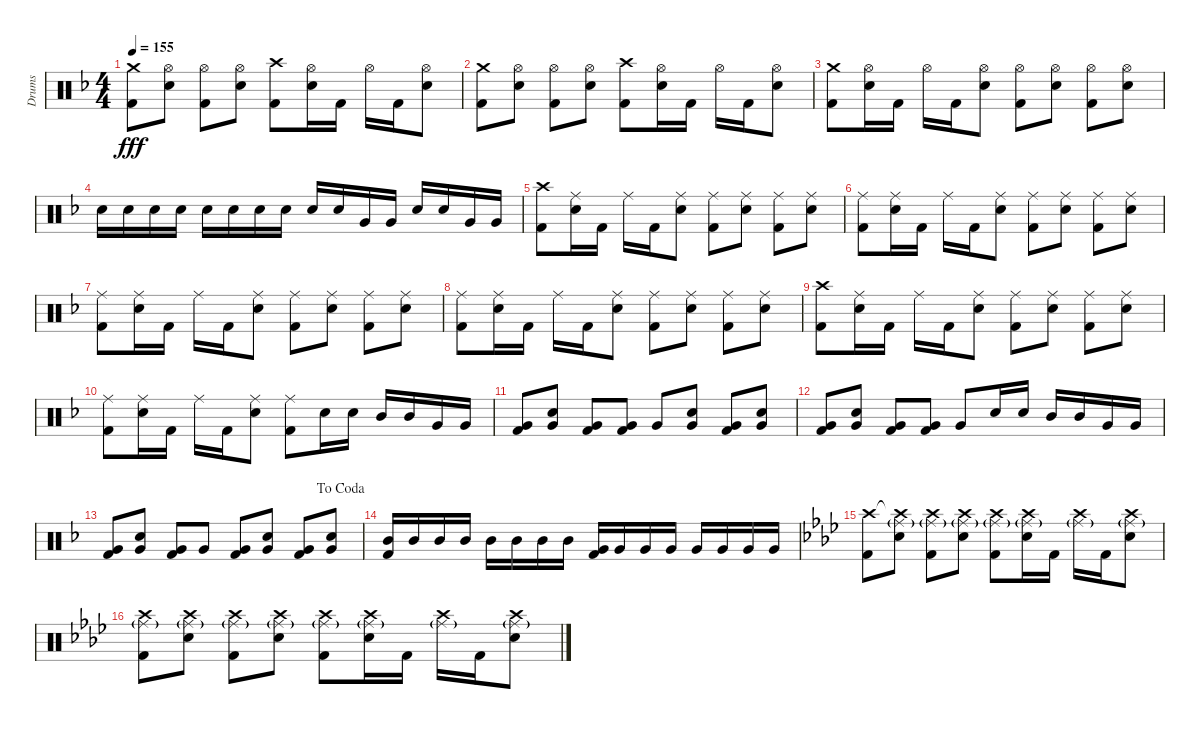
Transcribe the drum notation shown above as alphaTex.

\track ("Drums" "Drums") {instrument percussion}
\staff {score}
\articulation defaults
\ts (4 4)
\tempo 155
\clef neutral
\ks f
("Crash medium (hit)" "Kick (hit) 2").8{dy fff} ("Hi-Hat (open)" "Electric Snare (hit)").8 ("Hi-Hat (open)" "Kick (hit) 2").8 ("Hi-Hat (open)" "Electric Snare (hit)").8 ("Crash high (hit)" "Kick (hit) 2").8 ("Hi-Hat (open)" "Electric Snare (hit)").16 "Kick (hit) 2".16 "Hi-Hat (open)".16 "Kick (hit) 2".16 ("Hi-Hat (open)" "Electric Snare (hit)").8 |
("Crash medium (hit)" "Kick (hit) 2").8 ("Hi-Hat (open)" "Electric Snare (hit)").8 ("Hi-Hat (open)" "Kick (hit) 2").8 ("Hi-Hat (open)" "Electric Snare (hit)").8 ("Crash high (hit)" "Kick (hit) 2").8 ("Hi-Hat (open)" "Electric Snare (hit)").16 "Kick (hit) 2".16 "Hi-Hat (open)".16 "Kick (hit) 2".16 ("Hi-Hat (open)" "Electric Snare (hit)").8 |
("Crash medium (hit)" "Kick (hit) 2").8 ("Hi-Hat (open)" "Electric Snare (hit)").16 "Kick (hit) 2".16 "Hi-Hat (open)".16 "Kick (hit) 2".16 ("Hi-Hat (open)" "Electric Snare (hit)").8 ("Hi-Hat (open)" "Kick (hit) 2").8 ("Hi-Hat (open)" "Electric Snare (hit)").8 ("Hi-Hat (open)" "Kick (hit) 2").8 ("Hi-Hat (open)" "Electric Snare (hit)").8 |
"Electric Snare (hit)".16 "Electric Snare (hit)".16 "Electric Snare (hit)".16 "Electric Snare (hit)".16 "Electric Snare (hit)".16 "Electric Snare (hit)".16 "Electric Snare (hit)".16 "Electric Snare (hit)".16 "Electric Snare (hit)".16 "Electric Snare (hit)".16 "Very Low Tom (hit)".16 "Very Low Tom (hit)".16 "Electric Snare (hit)".16 "Electric Snare (hit)".16 "Very Low Tom (hit)".16 "Very Low Tom (hit)".16 |
("Crash high (hit)" "Kick (hit) 2").8 ("Ride (middle)" "Electric Snare (hit)").16 "Kick (hit) 2".16 "Ride (middle)".16 "Kick (hit) 2".16 ("Ride (middle)" "Electric Snare (hit)").8 ("Ride (middle)" "Kick (hit) 2").8 ("Ride (middle)" "Electric Snare (hit)").8 ("Ride (middle)" "Kick (hit) 2").8 ("Ride (middle)" "Electric Snare (hit)").8 |
("Ride (middle)" "Kick (hit) 2").8 ("Ride (middle)" "Electric Snare (hit)").16 "Kick (hit) 2".16 "Ride (middle)".16 "Kick (hit) 2".16 ("Ride (middle)" "Electric Snare (hit)").8 ("Ride (middle)" "Kick (hit) 2").8 ("Ride (middle)" "Electric Snare (hit)").8 ("Ride (middle)" "Kick (hit) 2").8 ("Ride (middle)" "Electric Snare (hit)").8 |
("Ride (middle)" "Kick (hit) 2").8 ("Ride (middle)" "Electric Snare (hit)").16 "Kick (hit) 2".16 "Ride (middle)".16 "Kick (hit) 2".16 ("Ride (middle)" "Electric Snare (hit)").8 ("Ride (middle)" "Kick (hit) 2").8 ("Ride (middle)" "Electric Snare (hit)").8 ("Ride (middle)" "Kick (hit) 2").8 ("Ride (middle)" "Electric Snare (hit)").8 |
("Ride (middle)" "Kick (hit) 2").8 ("Ride (middle)" "Electric Snare (hit)").16 "Kick (hit) 2".16 "Ride (middle)".16 "Kick (hit) 2".16 ("Ride (middle)" "Electric Snare (hit)").8 ("Ride (middle)" "Kick (hit) 2").8 ("Ride (middle)" "Electric Snare (hit)").8 ("Ride (middle)" "Kick (hit) 2").8 ("Ride (middle)" "Electric Snare (hit)").8 |
("Crash high (hit)" "Kick (hit) 2").8 ("Ride (middle)" "Electric Snare (hit)").16 "Kick (hit) 2".16 "Ride (middle)".16 "Kick (hit) 2".16 ("Ride (middle)" "Electric Snare (hit)").8 ("Ride (middle)" "Kick (hit) 2").8 ("Ride (middle)" "Electric Snare (hit)").8 ("Ride (middle)" "Kick (hit) 2").8 ("Ride (middle)" "Electric Snare (hit)").8 |
("Ride (middle)" "Kick (hit) 2").8 ("Ride (middle)" "Electric Snare (hit)").16 "Kick (hit) 2".16 "Ride (middle)".16 "Kick (hit) 2".16 ("Ride (middle)" "Electric Snare (hit)").8 ("Ride (middle)" "Kick (hit) 2").8 "Electric Snare (hit)".16 "Electric Snare (hit)".16 "Mid Tom (hit)".16 "Mid Tom (hit)".16 "Very Low Tom (hit)".16 "Very Low Tom (hit)".16 |
("Very Low Tom (hit)" "Kick (hit) 2").8 ("Electric Snare (hit)" "Very Low Tom (hit)").8 ("Very Low Tom (hit)" "Kick (hit) 2").8 ("Very Low Tom (hit)" "Kick (hit) 2").8 "Very Low Tom (hit)".8 ("Electric Snare (hit)" "Very Low Tom (hit)").8 ("Very Low Tom (hit)" "Kick (hit) 2").8 ("Electric Snare (hit)" "Very Low Tom (hit)").8 |
("Very Low Tom (hit)" "Kick (hit) 2").8 ("Electric Snare (hit)" "Very Low Tom (hit)").8 ("Very Low Tom (hit)" "Kick (hit) 2").8 ("Very Low Tom (hit)" "Kick (hit) 2").8 "Very Low Tom (hit)".8 "Electric Snare (hit)".16 "Electric Snare (hit)".16 "Mid Tom (hit)".16 "Mid Tom (hit)".16 "Very Low Tom (hit)".16 "Very Low Tom (hit)".16 |
\jump dacoda
("Very Low Tom (hit)" "Kick (hit) 2").8 ("Electric Snare (hit)" "Very Low Tom (hit)").8 ("Very Low Tom (hit)" "Kick (hit) 2").8 "Very Low Tom (hit)".8 ("Very Low Tom (hit)" "Kick (hit) 2").8 ("Electric Snare (hit)" "Very Low Tom (hit)").8 ("Very Low Tom (hit)" "Kick (hit) 2").8 ("Electric Snare (hit)" "Very Low Tom (hit)").8 |
("Mid Tom (hit)" "Kick (hit) 2").16 "Mid Tom (hit)".16 "Mid Tom (hit)".16 "Mid Tom (hit)".16 "Mid Tom (hit)".16 "Mid Tom (hit)".16 "Mid Tom (hit)".16 "Mid Tom (hit)".16 ("Very Low Tom (hit)" "Kick (hit) 2").16 "Very Low Tom (hit)".16 "Very Low Tom (hit)".16 "Very Low Tom (hit)".16 "Very Low Tom (hit)".16 "Very Low Tom (hit)".16 "Very Low Tom (hit)".16 "Very Low Tom (hit)".16 |
\ks ab
("Crash high (hit)" "Kick (hit) 2").8 ("Crash high (hit)"{t} "Ride (middle)"{g} "Electric Snare (hit)").8 ("Crash high (hit)" "Ride (middle)"{g} "Kick (hit) 2").8 ("Crash high (hit)" "Ride (middle)"{g} "Electric Snare (hit)").8 ("Crash high (hit)" "Ride (middle)"{g} "Kick (hit) 2").8 ("Crash high (hit)" "Ride (middle)"{g} "Electric Snare (hit)").16 "Kick (hit) 2".16 ("Crash high (hit)" "Ride (middle)"{g}).16 "Kick (hit) 2".16 ("Crash high (hit)" "Ride (middle)"{g} "Electric Snare (hit)").8 |
("Crash high (hit)" "Ride (middle)"{g} "Kick (hit) 2").8 ("Crash high (hit)" "Ride (middle)"{g} "Electric Snare (hit)").8 ("Crash high (hit)" "Ride (middle)"{g} "Kick (hit) 2").8 ("Crash high (hit)" "Ride (middle)"{g} "Electric Snare (hit)").8 ("Crash high (hit)" "Ride (middle)"{g} "Kick (hit) 2").8 ("Crash high (hit)" "Ride (middle)"{g} "Electric Snare (hit)").16 "Kick (hit) 2".16 ("Crash high (hit)" "Ride (middle)"{g}).16 "Kick (hit) 2".16 ("Crash high (hit)" "Ride (middle)"{g} "Electric Snare (hit)").8
